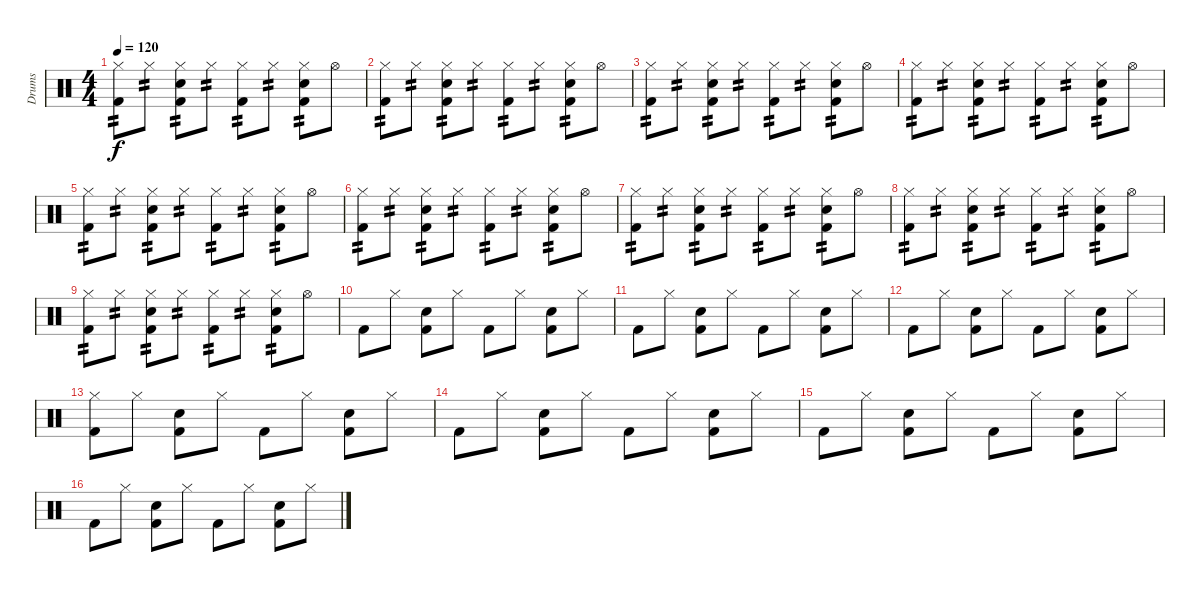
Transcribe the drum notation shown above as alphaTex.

\track ("Drums" "Drums") {instrument percussion}
\staff {score}
\articulation defaults
\ts (4 4)
\tempo 120
\clef neutral
\ks c
("Hi-Hat (closed)" "Kick (hit) 2").8{tp 2 dy f} "Hi-Hat (closed)".8{tp 2} ("Hi-Hat (closed)" "Snare (hit) 2" "Kick (hit) 2").8{tp 2} "Hi-Hat (closed)".8{tp 2} ("Hi-Hat (closed)" "Kick (hit) 2").8{tp 2} "Hi-Hat (closed)".8{tp 2} ("Hi-Hat (closed)" "Snare (hit) 2" "Kick (hit) 2").8{tp 2} "Hi-Hat (open)".8 |
("Hi-Hat (closed)" "Kick (hit) 2").8{tp 2} "Hi-Hat (closed)".8{tp 2} ("Hi-Hat (closed)" "Snare (hit) 2" "Kick (hit) 2").8{tp 2} "Hi-Hat (closed)".8{tp 2} ("Hi-Hat (closed)" "Kick (hit) 2").8{tp 2} "Hi-Hat (closed)".8{tp 2} ("Hi-Hat (closed)" "Snare (hit) 2" "Kick (hit) 2").8{tp 2} "Hi-Hat (open)".8 |
("Hi-Hat (closed)" "Kick (hit) 2").8{tp 2} "Hi-Hat (closed)".8{tp 2} ("Hi-Hat (closed)" "Snare (hit) 2" "Kick (hit) 2").8{tp 2} "Hi-Hat (closed)".8{tp 2} ("Hi-Hat (closed)" "Kick (hit) 2").8{tp 2} "Hi-Hat (closed)".8{tp 2} ("Hi-Hat (closed)" "Snare (hit) 2" "Kick (hit) 2").8{tp 2} "Hi-Hat (open)".8 |
("Hi-Hat (closed)" "Kick (hit) 2").8{tp 2} "Hi-Hat (closed)".8{tp 2} ("Hi-Hat (closed)" "Snare (hit) 2" "Kick (hit) 2").8{tp 2} "Hi-Hat (closed)".8{tp 2} ("Hi-Hat (closed)" "Kick (hit) 2").8{tp 2} "Hi-Hat (closed)".8{tp 2} ("Hi-Hat (closed)" "Snare (hit) 2" "Kick (hit) 2").8{tp 2} "Hi-Hat (open)".8 |
("Hi-Hat (closed)" "Kick (hit) 2").8{tp 2} "Hi-Hat (closed)".8{tp 2} ("Hi-Hat (closed)" "Snare (hit) 2" "Kick (hit) 2").8{tp 2} "Hi-Hat (closed)".8{tp 2} ("Hi-Hat (closed)" "Kick (hit) 2").8{tp 2} "Hi-Hat (closed)".8{tp 2} ("Hi-Hat (closed)" "Snare (hit) 2" "Kick (hit) 2").8{tp 2} "Hi-Hat (open)".8 |
("Hi-Hat (closed)" "Kick (hit) 2").8{tp 2} "Hi-Hat (closed)".8{tp 2} ("Hi-Hat (closed)" "Snare (hit) 2" "Kick (hit) 2").8{tp 2} "Hi-Hat (closed)".8{tp 2} ("Hi-Hat (closed)" "Kick (hit) 2").8{tp 2} "Hi-Hat (closed)".8{tp 2} ("Hi-Hat (closed)" "Snare (hit) 2" "Kick (hit) 2").8{tp 2} "Hi-Hat (open)".8 |
("Hi-Hat (closed)" "Kick (hit) 2").8{tp 2} "Hi-Hat (closed)".8{tp 2} ("Hi-Hat (closed)" "Snare (hit) 2" "Kick (hit) 2").8{tp 2} "Hi-Hat (closed)".8{tp 2} ("Hi-Hat (closed)" "Kick (hit) 2").8{tp 2} "Hi-Hat (closed)".8{tp 2} ("Hi-Hat (closed)" "Snare (hit) 2" "Kick (hit) 2").8{tp 2} "Hi-Hat (open)".8 |
("Hi-Hat (closed)" "Kick (hit) 2").8{tp 2} "Hi-Hat (closed)".8{tp 2} ("Hi-Hat (closed)" "Snare (hit) 2" "Kick (hit) 2").8{tp 2} "Hi-Hat (closed)".8{tp 2} ("Hi-Hat (closed)" "Kick (hit) 2").8{tp 2} "Hi-Hat (closed)".8{tp 2} ("Hi-Hat (closed)" "Snare (hit) 2" "Kick (hit) 2").8{tp 2} "Hi-Hat (open)".8 |
("Hi-Hat (closed)" "Kick (hit) 2").8{tp 2} "Hi-Hat (closed)".8{tp 2} ("Hi-Hat (closed)" "Snare (hit) 2" "Kick (hit) 2").8{tp 2} "Hi-Hat (closed)".8{tp 2} ("Hi-Hat (closed)" "Kick (hit) 2").8{tp 2} "Hi-Hat (closed)".8{tp 2} ("Hi-Hat (closed)" "Snare (hit) 2" "Kick (hit) 2").8{tp 2} "Hi-Hat (open)".8 |
"Kick (hit) 2".8 "Hi-Hat (closed)".8 ("Snare (hit) 2" "Kick (hit) 2").8 "Hi-Hat (closed)".8 "Kick (hit) 2".8 "Hi-Hat (closed)".8 ("Snare (hit) 2" "Kick (hit) 2").8 "Hi-Hat (closed)".8 |
"Kick (hit) 2".8 "Hi-Hat (closed)".8 ("Snare (hit) 2" "Kick (hit) 2").8 "Hi-Hat (closed)".8 "Kick (hit) 2".8 "Hi-Hat (closed)".8 ("Snare (hit) 2" "Kick (hit) 2").8 "Hi-Hat (closed)".8 |
"Kick (hit) 2".8 "Hi-Hat (closed)".8 ("Snare (hit) 2" "Kick (hit) 2").8 "Hi-Hat (closed)".8 "Kick (hit) 2".8 "Hi-Hat (closed)".8 ("Snare (hit) 2" "Kick (hit) 2").8 "Hi-Hat (closed)".8 |
("Hi-Hat (closed)" "Kick (hit) 2").8 "Hi-Hat (closed)".8 ("Snare (hit) 2" "Kick (hit) 2").8 "Hi-Hat (closed)".8 "Kick (hit) 2".8 "Hi-Hat (closed)".8 ("Snare (hit) 2" "Kick (hit) 2").8 "Hi-Hat (closed)".8 |
"Kick (hit) 2".8 "Hi-Hat (closed)".8 ("Snare (hit) 2" "Kick (hit) 2").8 "Hi-Hat (closed)".8 "Kick (hit) 2".8 "Hi-Hat (closed)".8 ("Snare (hit) 2" "Kick (hit) 2").8 "Hi-Hat (closed)".8 |
"Kick (hit) 2".8 "Hi-Hat (closed)".8 ("Snare (hit) 2" "Kick (hit) 2").8 "Hi-Hat (closed)".8 "Kick (hit) 2".8 "Hi-Hat (closed)".8 ("Snare (hit) 2" "Kick (hit) 2").8 "Hi-Hat (closed)".8 |
"Kick (hit) 2".8 "Hi-Hat (closed)".8 ("Snare (hit) 2" "Kick (hit) 2").8 "Hi-Hat (closed)".8 "Kick (hit) 2".8 "Hi-Hat (closed)".8 ("Snare (hit) 2" "Kick (hit) 2").8 "Hi-Hat (closed)".8
